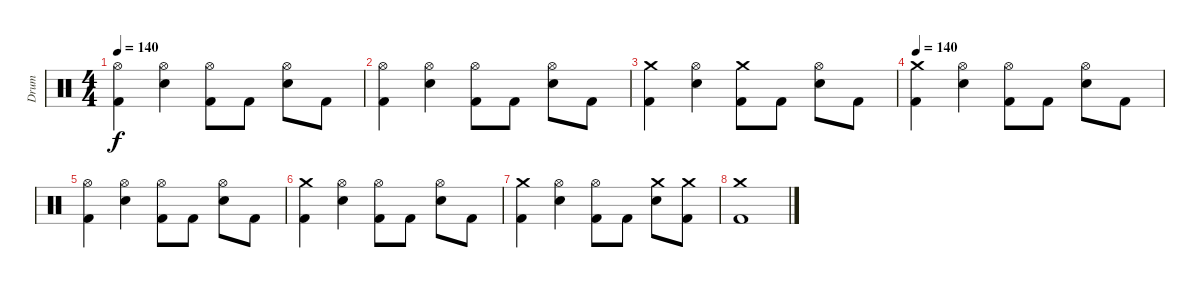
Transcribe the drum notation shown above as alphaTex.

\track ("Drum" "Drum") {instrument percussion}
\staff
\articulation defaults
\ts (4 4)
\tempo 140
\clef neutral
\ks c
("Hi-Hat (open)" "Kick (hit) 2").4{dy f} ("Hi-Hat (open)" "Electric Snare (hit)").4 ("Hi-Hat (open)" "Kick (hit) 2").8 "Kick (hit) 2".8 ("Hi-Hat (open)" "Electric Snare (hit)").8 "Kick (hit) 2".8 |
("Hi-Hat (open)" "Kick (hit) 2").4 ("Hi-Hat (open)" "Electric Snare (hit)").4 ("Hi-Hat (open)" "Kick (hit) 2").8 "Kick (hit) 2".8 ("Hi-Hat (open)" "Electric Snare (hit)").8 "Kick (hit) 2".8 |
("Crash medium (hit)" "Kick (hit) 2").4 ("Hi-Hat (open)" "Electric Snare (hit)").4 ("Crash medium (hit)" "Kick (hit) 2").8 "Kick (hit) 2".8 ("Hi-Hat (open)" "Electric Snare (hit)").8 "Kick (hit) 2".8 |
\tempo 140
("Crash medium (hit)" "Kick (hit) 2").4 ("Hi-Hat (open)" "Electric Snare (hit)").4 ("Hi-Hat (open)" "Kick (hit) 2").8 "Kick (hit) 2".8 ("Hi-Hat (open)" "Electric Snare (hit)").8 "Kick (hit) 2".8 |
("Hi-Hat (open)" "Kick (hit) 2").4 ("Hi-Hat (open)" "Electric Snare (hit)").4 ("Hi-Hat (open)" "Kick (hit) 2").8 "Kick (hit) 2".8 ("Hi-Hat (open)" "Electric Snare (hit)").8 "Kick (hit) 2".8 |
("Crash medium (hit)" "Kick (hit) 2").4 ("Hi-Hat (open)" "Electric Snare (hit)").4 ("Hi-Hat (open)" "Kick (hit) 2").8 "Kick (hit) 2".8 ("Hi-Hat (open)" "Electric Snare (hit)").8 "Kick (hit) 2".8 |
("Crash medium (hit)" "Kick (hit) 2").4 ("Hi-Hat (open)" "Electric Snare (hit)").4 ("Hi-Hat (open)" "Kick (hit) 2").8 "Kick (hit) 2".8 ("Crash medium (hit)" "Electric Snare (hit)").8 ("Crash medium (hit)" "Kick (hit) 2").8 |
("Crash medium (hit)" "Kick (hit) 2").1
